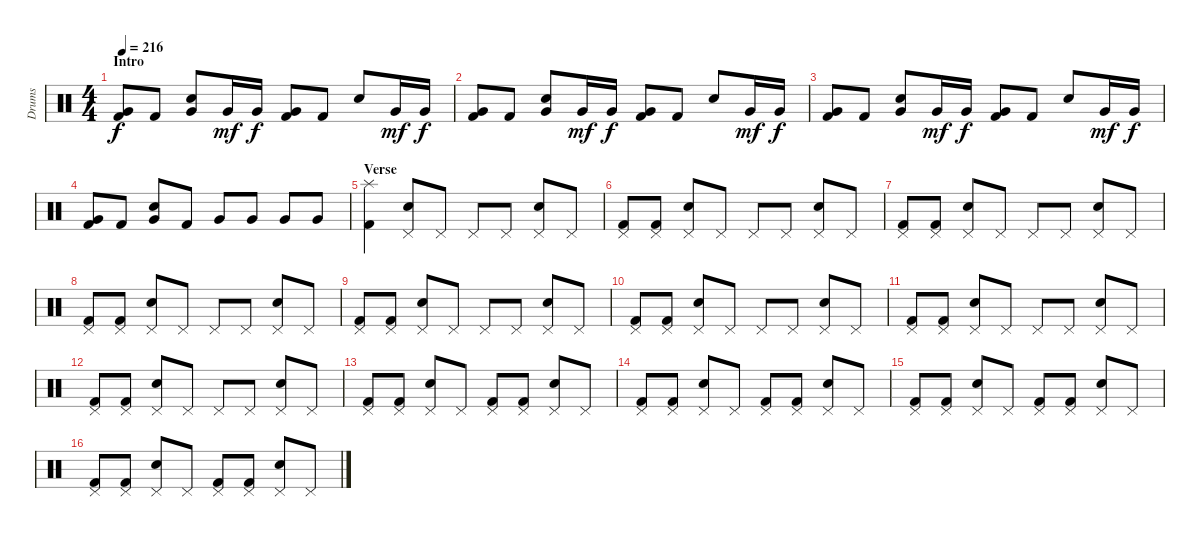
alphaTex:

\track ("Drums" "Drums") {instrument percussion}
\staff {score}
\articulation defaults
\ts (4 4)
\section ("" "Intro")
\tempo 216
\clef neutral
\ks c
("Very Low Tom (hit)" "Kick (hit) 2").8{dy f} "Kick (hit) 2".8 ("Very Low Tom (hit)" "Electric Snare (hit)").8 "Very Low Tom (hit)".16{dy mf} "Very Low Tom (hit)".16{dy f} ("Very Low Tom (hit)" "Kick (hit) 2").8 "Kick (hit) 2".8 "Electric Snare (hit)".8 "Very Low Tom (hit)".16{dy mf} "Very Low Tom (hit)".16{dy f} |
("Very Low Tom (hit)" "Kick (hit) 2").8 "Kick (hit) 2".8 ("Very Low Tom (hit)" "Electric Snare (hit)").8 "Very Low Tom (hit)".16{dy mf} "Very Low Tom (hit)".16{dy f} ("Very Low Tom (hit)" "Kick (hit) 2").8 "Kick (hit) 2".8 "Electric Snare (hit)".8 "Very Low Tom (hit)".16{dy mf} "Very Low Tom (hit)".16{dy f} |
("Very Low Tom (hit)" "Kick (hit) 2").8 "Kick (hit) 2".8 ("Very Low Tom (hit)" "Electric Snare (hit)").8 "Very Low Tom (hit)".16{dy mf} "Very Low Tom (hit)".16{dy f} ("Very Low Tom (hit)" "Kick (hit) 2").8 "Kick (hit) 2".8 "Electric Snare (hit)".8 "Very Low Tom (hit)".16{dy mf} "Very Low Tom (hit)".16{dy f} |
("Very Low Tom (hit)" "Kick (hit) 2").8 "Kick (hit) 2".8 ("Very Low Tom (hit)" "Electric Snare (hit)").8 "Kick (hit) 2".8 "Very Low Tom (hit)".8 "Very Low Tom (hit)".8 "Very Low Tom (hit)".8 "Very Low Tom (hit)".8 |
\section ("" "Verse")
("Splash (hit)" "Kick (hit) 2").4 ("Pedal Hi-Hat (hit)" "Electric Snare (hit)").8 "Pedal Hi-Hat (hit)".8 "Pedal Hi-Hat (hit)".8 "Pedal Hi-Hat (hit)".8 ("Pedal Hi-Hat (hit)" "Electric Snare (hit)").8 "Pedal Hi-Hat (hit)".8 |
("Pedal Hi-Hat (hit)" "Kick (hit) 2").8 ("Pedal Hi-Hat (hit)" "Kick (hit) 2").8 ("Pedal Hi-Hat (hit)" "Electric Snare (hit)").8 "Pedal Hi-Hat (hit)".8 "Pedal Hi-Hat (hit)".8 "Pedal Hi-Hat (hit)".8 ("Pedal Hi-Hat (hit)" "Electric Snare (hit)").8 "Pedal Hi-Hat (hit)".8 |
("Pedal Hi-Hat (hit)" "Kick (hit) 2").8 ("Pedal Hi-Hat (hit)" "Kick (hit) 2").8 ("Pedal Hi-Hat (hit)" "Electric Snare (hit)").8 "Pedal Hi-Hat (hit)".8 "Pedal Hi-Hat (hit)".8 "Pedal Hi-Hat (hit)".8 ("Pedal Hi-Hat (hit)" "Electric Snare (hit)").8 "Pedal Hi-Hat (hit)".8 |
("Pedal Hi-Hat (hit)" "Kick (hit) 2").8 ("Pedal Hi-Hat (hit)" "Kick (hit) 2").8 ("Pedal Hi-Hat (hit)" "Electric Snare (hit)").8 "Pedal Hi-Hat (hit)".8 "Pedal Hi-Hat (hit)".8 "Pedal Hi-Hat (hit)".8 ("Pedal Hi-Hat (hit)" "Electric Snare (hit)").8 "Pedal Hi-Hat (hit)".8 |
("Pedal Hi-Hat (hit)" "Kick (hit) 2").8 ("Pedal Hi-Hat (hit)" "Kick (hit) 2").8 ("Pedal Hi-Hat (hit)" "Electric Snare (hit)").8 "Pedal Hi-Hat (hit)".8 "Pedal Hi-Hat (hit)".8 "Pedal Hi-Hat (hit)".8 ("Pedal Hi-Hat (hit)" "Electric Snare (hit)").8 "Pedal Hi-Hat (hit)".8 |
("Pedal Hi-Hat (hit)" "Kick (hit) 2").8 ("Pedal Hi-Hat (hit)" "Kick (hit) 2").8 ("Pedal Hi-Hat (hit)" "Electric Snare (hit)").8 "Pedal Hi-Hat (hit)".8 "Pedal Hi-Hat (hit)".8 "Pedal Hi-Hat (hit)".8 ("Pedal Hi-Hat (hit)" "Electric Snare (hit)").8 "Pedal Hi-Hat (hit)".8 |
("Pedal Hi-Hat (hit)" "Kick (hit) 2").8 ("Pedal Hi-Hat (hit)" "Kick (hit) 2").8 ("Pedal Hi-Hat (hit)" "Electric Snare (hit)").8 "Pedal Hi-Hat (hit)".8 "Pedal Hi-Hat (hit)".8 "Pedal Hi-Hat (hit)".8 ("Pedal Hi-Hat (hit)" "Electric Snare (hit)").8 "Pedal Hi-Hat (hit)".8 |
("Pedal Hi-Hat (hit)" "Kick (hit) 2").8 ("Pedal Hi-Hat (hit)" "Kick (hit) 2").8 ("Pedal Hi-Hat (hit)" "Electric Snare (hit)").8 "Pedal Hi-Hat (hit)".8 "Pedal Hi-Hat (hit)".8 "Pedal Hi-Hat (hit)".8 ("Pedal Hi-Hat (hit)" "Electric Snare (hit)").8 "Pedal Hi-Hat (hit)".8 |
("Pedal Hi-Hat (hit)" "Kick (hit) 2").8 ("Pedal Hi-Hat (hit)" "Kick (hit) 2").8 ("Pedal Hi-Hat (hit)" "Electric Snare (hit)").8 "Pedal Hi-Hat (hit)".8 ("Pedal Hi-Hat (hit)" "Kick (hit) 2").8 ("Pedal Hi-Hat (hit)" "Kick (hit) 2").8 ("Pedal Hi-Hat (hit)" "Electric Snare (hit)").8 "Pedal Hi-Hat (hit)".8 |
("Pedal Hi-Hat (hit)" "Kick (hit) 2").8 ("Pedal Hi-Hat (hit)" "Kick (hit) 2").8 ("Pedal Hi-Hat (hit)" "Electric Snare (hit)").8 "Pedal Hi-Hat (hit)".8 ("Pedal Hi-Hat (hit)" "Kick (hit) 2").8 ("Pedal Hi-Hat (hit)" "Kick (hit) 2").8 ("Pedal Hi-Hat (hit)" "Electric Snare (hit)").8 "Pedal Hi-Hat (hit)".8 |
("Pedal Hi-Hat (hit)" "Kick (hit) 2").8 ("Pedal Hi-Hat (hit)" "Kick (hit) 2").8 ("Pedal Hi-Hat (hit)" "Electric Snare (hit)").8 "Pedal Hi-Hat (hit)".8 ("Pedal Hi-Hat (hit)" "Kick (hit) 2").8 ("Pedal Hi-Hat (hit)" "Kick (hit) 2").8 ("Pedal Hi-Hat (hit)" "Electric Snare (hit)").8 "Pedal Hi-Hat (hit)".8 |
("Pedal Hi-Hat (hit)" "Kick (hit) 2").8 ("Pedal Hi-Hat (hit)" "Kick (hit) 2").8 ("Pedal Hi-Hat (hit)" "Electric Snare (hit)").8 "Pedal Hi-Hat (hit)".8 ("Pedal Hi-Hat (hit)" "Kick (hit) 2").8 ("Pedal Hi-Hat (hit)" "Kick (hit) 2").8 ("Pedal Hi-Hat (hit)" "Electric Snare (hit)").8 "Pedal Hi-Hat (hit)".8
